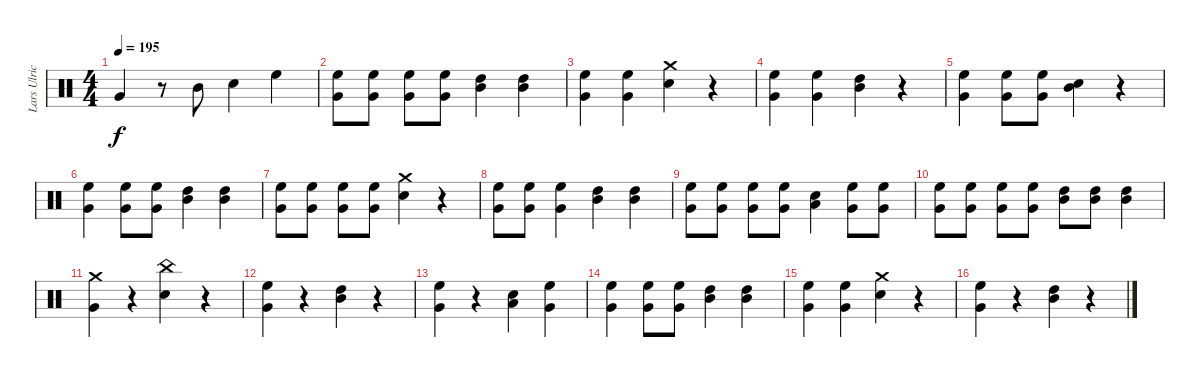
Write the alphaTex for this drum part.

\track ("Lars Ulrich (Drums)" "Lars Ulric") {instrument percussion}
\staff {score}
\articulation defaults
\ts (4 4)
\tempo 195
\clef neutral
\ks c "Very Low Tom (hit)".4{dy f}
r.8 "Mid Tom (hit)".8 "Snare (hit) 2".4 "High Floor Tom (hit)".4 |
("High Floor Tom (hit)" "Very Low Tom (hit)").8 ("Very Low Tom (hit)" "High Floor Tom (hit)").8 ("High Floor Tom (hit)" "Very Low Tom (hit)").8 ("High Floor Tom (hit)" "Very Low Tom (hit)").8 ("Mid Tom (hit)" "High Tom (hit)").4 ("Mid Tom (hit)" "High Tom (hit)").4 |
("Very Low Tom (hit)" "High Floor Tom (hit)").4 ("Very Low Tom (hit)" "High Floor Tom (hit)").4 ("Crash medium (hit)" "Snare (hit) 2").4 r.4 |
("Very Low Tom (hit)" "High Floor Tom (hit)").4 ("Very Low Tom (hit)" "High Floor Tom (hit)").4 ("Mid Tom (hit)" "High Tom (hit)").4 r.4 |
("Very Low Tom (hit)" "High Floor Tom (hit)").4 ("High Floor Tom (hit)" "Very Low Tom (hit)").8 ("High Floor Tom (hit)" "Very Low Tom (hit)").8 ("Snare (hit) 2" "Mid Tom (hit)").4 r.4 |
("High Floor Tom (hit)" "Very Low Tom (hit)").4 ("High Floor Tom (hit)" "Very Low Tom (hit)").8 ("High Floor Tom (hit)" "Very Low Tom (hit)").8 ("Mid Tom (hit)" "High Tom (hit)").4 ("Mid Tom (hit)" "High Tom (hit)").4 |
("High Floor Tom (hit)" "Very Low Tom (hit)").8 ("Very Low Tom (hit)" "High Floor Tom (hit)").8 ("High Floor Tom (hit)" "Very Low Tom (hit)").8 ("High Floor Tom (hit)" "Very Low Tom (hit)").8 ("Snare (hit) 2" "Crash medium (hit)").4 r.4 |
("Very Low Tom (hit)" "High Floor Tom (hit)").8 ("Very Low Tom (hit)" "High Floor Tom (hit)").8 ("Very Low Tom (hit)" "High Floor Tom (hit)").4 ("High Tom (hit)" "Mid Tom (hit)").4 ("High Tom (hit)" "Mid Tom (hit)").4 |
("High Floor Tom (hit)" "Very Low Tom (hit)").8 ("High Floor Tom (hit)" "Very Low Tom (hit)").8 ("High Floor Tom (hit)" "Very Low Tom (hit)").8 ("High Floor Tom (hit)" "Very Low Tom (hit)").8 ("Snare (hit) 2" "Low Tom (hit)").4 ("High Floor Tom (hit)" "Very Low Tom (hit)").8 ("High Floor Tom (hit)" "Very Low Tom (hit)").8 |
("Very Low Tom (hit)" "High Floor Tom (hit)").8 ("Very Low Tom (hit)" "High Floor Tom (hit)").8 ("Very Low Tom (hit)" "High Floor Tom (hit)").8 ("Very Low Tom (hit)" "High Floor Tom (hit)").8 ("High Tom (hit)" "Mid Tom (hit)").8 ("High Tom (hit)" "Mid Tom (hit)").8 ("Mid Tom (hit)" "High Tom (hit)").4 |
("Very Low Tom (hit)" "Crash medium (hit)").4 r.4 ("China (hit)" "Snare (hit) 2").4 r.4 |
("High Floor Tom (hit)" "Very Low Tom (hit)").4 r.4 ("Mid Tom (hit)" "High Tom (hit)").4 r.4 |
("Very Low Tom (hit)" "High Floor Tom (hit)").4 r.4 ("Snare (hit) 2" "Low Tom (hit)").4 ("High Floor Tom (hit)" "Very Low Tom (hit)").4 |
("Very Low Tom (hit)" "High Floor Tom (hit)").4 ("High Floor Tom (hit)" "Very Low Tom (hit)").8 ("High Floor Tom (hit)" "Very Low Tom (hit)").8 ("Mid Tom (hit)" "High Tom (hit)").4 ("Mid Tom (hit)" "High Tom (hit)").4 |
("Very Low Tom (hit)" "High Floor Tom (hit)").4 ("Very Low Tom (hit)" "High Floor Tom (hit)").4 ("Crash medium (hit)" "Snare (hit) 2").4 r.4 |
("High Floor Tom (hit)" "Very Low Tom (hit)").4 r.4 ("Mid Tom (hit)" "High Tom (hit)").4 r.4
